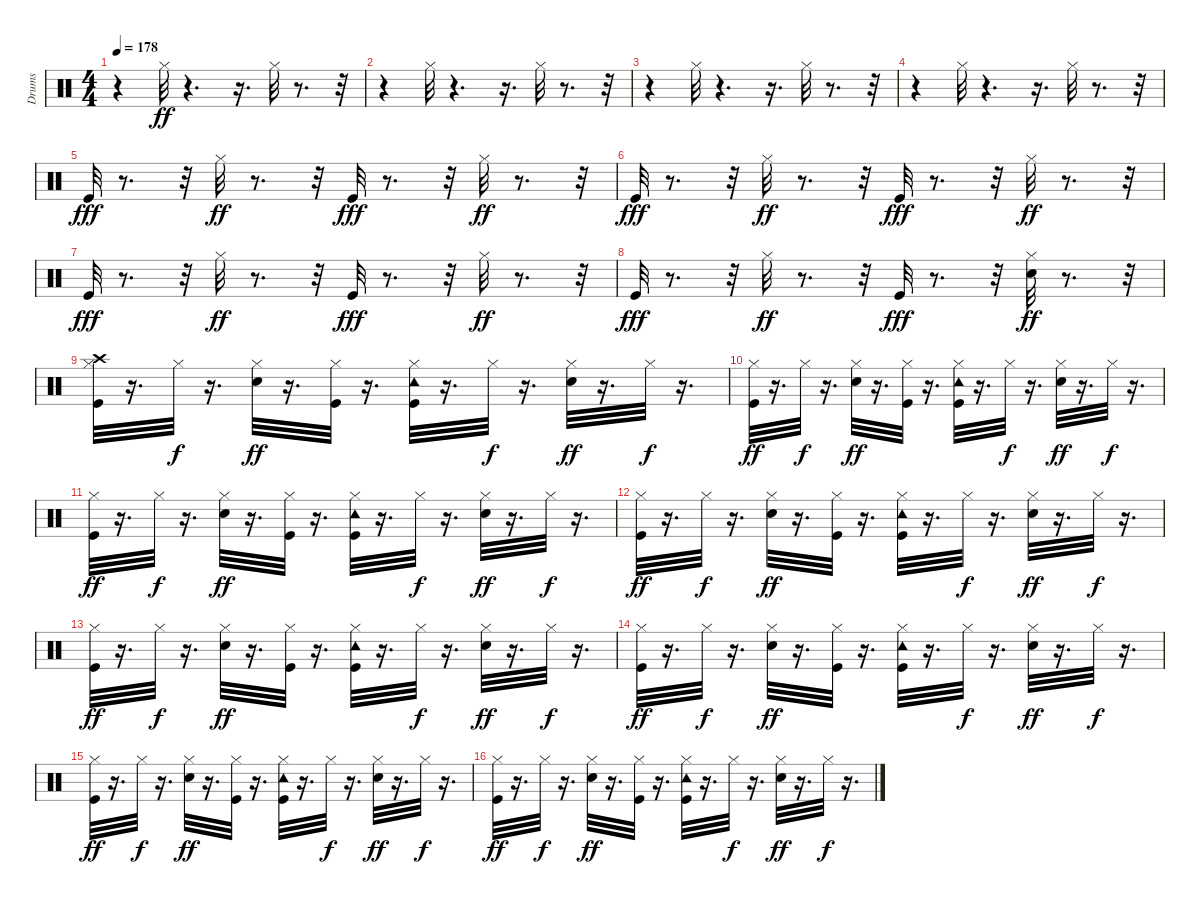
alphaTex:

\track ("Drums" "Drums") {instrument percussion}
\staff {score}
\articulation defaults
\ts (4 4)
\tempo 178
\clef neutral
\ks c
r.4{dy ff} "Hi-Hat (closed)".32 r.4{d} r.16{d} "Hi-Hat (closed)".32 r.8{d} r.32 |
r.4 "Hi-Hat (closed)".32 r.4{d} r.16{d} "Hi-Hat (closed)".32 r.8{d} r.32 |
r.4 "Hi-Hat (closed)".32 r.4{d} r.16{d} "Hi-Hat (closed)".32 r.8{d} r.32 |
r.4 "Hi-Hat (closed)".32 r.4{d} r.16{d} "Hi-Hat (closed)".32 r.8{d} r.32 |
"Kick (hit)".32{dy fff} r.8{d} r.32 "Hi-Hat (closed)".32{dy ff} r.8{d} r.32 "Kick (hit)".32{dy fff} r.8{d} r.32 "Hi-Hat (closed)".32{dy ff} r.8{d} r.32 |
"Kick (hit)".32{dy fff} r.8{d} r.32 "Hi-Hat (closed)".32{dy ff} r.8{d} r.32 "Kick (hit)".32{dy fff} r.8{d} r.32 "Hi-Hat (closed)".32{dy ff} r.8{d} r.32 |
"Kick (hit)".32{dy fff} r.8{d} r.32 "Hi-Hat (closed)".32{dy ff} r.8{d} r.32 "Kick (hit)".32{dy fff} r.8{d} r.32 "Hi-Hat (closed)".32{dy ff} r.8{d} r.32 |
"Kick (hit)".32{dy fff} r.8{d} r.32 "Hi-Hat (closed)".32{dy ff} r.8{d} r.32 "Kick (hit)".32{dy fff} r.8{d} r.32 ("Snare (hit) 2" "Hi-Hat (closed)").32{dy ff} r.8{d} r.32 |
("Kick (hit)" "Crash high (hit)" "Hi-Hat (closed)").32 r.16{d} "Hi-Hat (closed)".32{dy f} r.16{d} ("Snare (hit) 2" "Hi-Hat (closed)").32{dy ff} r.16{d} ("Hi-Hat (closed)" "Kick (hit)").32 r.16{d} ("Kick (hit)" "Tambourine (hit)" "Hi-Hat (closed)").32 r.16{d} "Hi-Hat (closed)".32{dy f} r.16{d} ("Snare (hit) 2" "Hi-Hat (closed)").32{dy ff} r.16{d} "Hi-Hat (closed)".32{dy f} r.16{d} |
("Kick (hit)" "Hi-Hat (closed)").32{dy ff} r.16{d} "Hi-Hat (closed)".32{dy f} r.16{d} ("Snare (hit) 2" "Hi-Hat (closed)").32{dy ff} r.16{d} ("Hi-Hat (closed)" "Kick (hit)").32 r.16{d} ("Kick (hit)" "Tambourine (hit)" "Hi-Hat (closed)").32 r.16{d} "Hi-Hat (closed)".32{dy f} r.16{d} ("Snare (hit) 2" "Hi-Hat (closed)").32{dy ff} r.16{d} "Hi-Hat (closed)".32{dy f} r.16{d} |
("Kick (hit)" "Hi-Hat (closed)").32{dy ff} r.16{d} "Hi-Hat (closed)".32{dy f} r.16{d} ("Snare (hit) 2" "Hi-Hat (closed)").32{dy ff} r.16{d} ("Hi-Hat (closed)" "Kick (hit)").32 r.16{d} ("Kick (hit)" "Tambourine (hit)" "Hi-Hat (closed)").32 r.16{d} "Hi-Hat (closed)".32{dy f} r.16{d} ("Snare (hit) 2" "Hi-Hat (closed)").32{dy ff} r.16{d} "Hi-Hat (closed)".32{dy f} r.16{d} |
("Kick (hit)" "Hi-Hat (closed)").32{dy ff} r.16{d} "Hi-Hat (closed)".32{dy f} r.16{d} ("Snare (hit) 2" "Hi-Hat (closed)").32{dy ff} r.16{d} ("Hi-Hat (closed)" "Kick (hit)").32 r.16{d} ("Kick (hit)" "Tambourine (hit)" "Hi-Hat (closed)").32 r.16{d} "Hi-Hat (closed)".32{dy f} r.16{d} ("Snare (hit) 2" "Hi-Hat (closed)").32{dy ff} r.16{d} "Hi-Hat (closed)".32{dy f} r.16{d} |
("Kick (hit)" "Hi-Hat (closed)").32{dy ff} r.16{d} "Hi-Hat (closed)".32{dy f} r.16{d} ("Snare (hit) 2" "Hi-Hat (closed)").32{dy ff} r.16{d} ("Hi-Hat (closed)" "Kick (hit)").32 r.16{d} ("Kick (hit)" "Tambourine (hit)" "Hi-Hat (closed)").32 r.16{d} "Hi-Hat (closed)".32{dy f} r.16{d} ("Snare (hit) 2" "Hi-Hat (closed)").32{dy ff} r.16{d} "Hi-Hat (closed)".32{dy f} r.16{d} |
("Kick (hit)" "Hi-Hat (closed)").32{dy ff} r.16{d} "Hi-Hat (closed)".32{dy f} r.16{d} ("Snare (hit) 2" "Hi-Hat (closed)").32{dy ff} r.16{d} ("Hi-Hat (closed)" "Kick (hit)").32 r.16{d} ("Kick (hit)" "Tambourine (hit)" "Hi-Hat (closed)").32 r.16{d} "Hi-Hat (closed)".32{dy f} r.16{d} ("Snare (hit) 2" "Hi-Hat (closed)").32{dy ff} r.16{d} "Hi-Hat (closed)".32{dy f} r.16{d} |
("Kick (hit)" "Hi-Hat (closed)").32{dy ff} r.16{d} "Hi-Hat (closed)".32{dy f} r.16{d} ("Snare (hit) 2" "Hi-Hat (closed)").32{dy ff} r.16{d} ("Hi-Hat (closed)" "Kick (hit)").32 r.16{d} ("Kick (hit)" "Tambourine (hit)" "Hi-Hat (closed)").32 r.16{d} "Hi-Hat (closed)".32{dy f} r.16{d} ("Snare (hit) 2" "Hi-Hat (closed)").32{dy ff} r.16{d} "Hi-Hat (closed)".32{dy f} r.16{d} |
("Kick (hit)" "Hi-Hat (closed)").32{dy ff} r.16{d} "Hi-Hat (closed)".32{dy f} r.16{d} ("Snare (hit) 2" "Hi-Hat (closed)").32{dy ff} r.16{d} ("Hi-Hat (closed)" "Kick (hit)").32 r.16{d} ("Kick (hit)" "Tambourine (hit)" "Hi-Hat (closed)").32 r.16{d} "Hi-Hat (closed)".32{dy f} r.16{d} ("Snare (hit) 2" "Hi-Hat (closed)").32{dy ff} r.16{d} "Hi-Hat (closed)".32{dy f} r.16{d}
